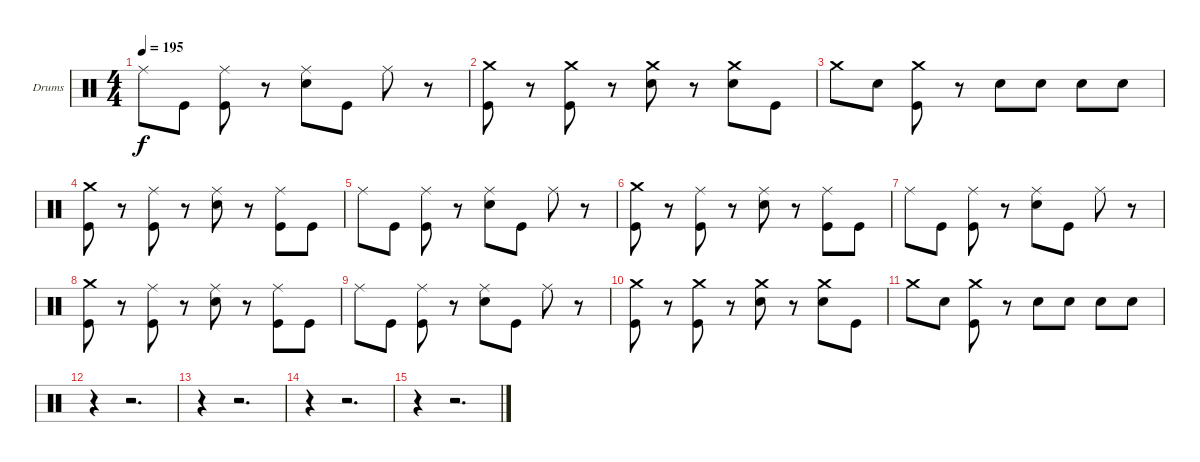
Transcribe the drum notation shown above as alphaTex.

\bracketExtendMode groupsimilarinstruments
\firstSystemTrackNameOrientation horizontal
\otherSystemsTrackNameOrientation horizontal
\track ("Drumkit" "Drums") {instrument percussion}
\staff {score}
\articulation defaults
\ts (4 4)
\tempo 195
\clef neutral
\ks c "Ride (middle)".8{dy f} "Kick (hit)".8
("Ride (middle)" "Kick (hit)").8 r.8 ("Ride (middle)" "Snare (hit) 2").8 "Kick (hit)".8 "Ride (middle)".8 r.8 |
("Crash medium (hit)" "Kick (hit)").8 r.8 ("Crash medium (hit)" "Kick (hit)").8 r.8 ("Crash medium (hit)" "Snare (hit) 2").8 r.8 ("Crash medium (hit)" "Snare (hit) 2").8 "Kick (hit)".8 |
"Crash medium (hit)".8 "Snare (hit) 2".8 ("Crash medium (hit)" "Kick (hit)").8 r.8 "Snare (hit) 2".8 "Snare (hit) 2".8 "Snare (hit) 2".8 "Snare (hit) 2".8 |
("Crash medium (hit)" "Kick (hit)").8 r.8 ("Ride (middle)" "Kick (hit)").8 r.8 ("Ride (middle)" "Snare (hit) 2").8 r.8 ("Ride (middle)" "Kick (hit)").8 "Kick (hit)".8 |
"Ride (middle)".8 "Kick (hit)".8 ("Ride (middle)" "Kick (hit)").8 r.8 ("Ride (middle)" "Snare (hit) 2").8 "Kick (hit)".8 "Ride (middle)".8 r.8 |
("Crash medium (hit)" "Kick (hit)").8 r.8 ("Ride (middle)" "Kick (hit)").8 r.8 ("Ride (middle)" "Snare (hit) 2").8 r.8 ("Ride (middle)" "Kick (hit)").8 "Kick (hit)".8 |
"Ride (middle)".8 "Kick (hit)".8 ("Ride (middle)" "Kick (hit)").8 r.8 ("Ride (middle)" "Snare (hit) 2").8 "Kick (hit)".8 "Ride (middle)".8 r.8 |
("Crash medium (hit)" "Kick (hit)").8 r.8 ("Ride (middle)" "Kick (hit)").8 r.8 ("Ride (middle)" "Snare (hit) 2").8 r.8 ("Ride (middle)" "Kick (hit)").8 "Kick (hit)".8 |
"Ride (middle)".8 "Kick (hit)".8 ("Ride (middle)" "Kick (hit)").8 r.8 ("Ride (middle)" "Snare (hit) 2").8 "Kick (hit)".8 "Ride (middle)".8 r.8 |
("Crash medium (hit)" "Kick (hit)").8 r.8 ("Crash medium (hit)" "Kick (hit)").8 r.8 ("Crash medium (hit)" "Snare (hit) 2").8 r.8 ("Crash medium (hit)" "Snare (hit) 2").8 "Kick (hit)".8 |
"Crash medium (hit)".8 "Snare (hit) 2".8 ("Crash medium (hit)" "Kick (hit)").8 r.8 "Snare (hit) 2".8 "Snare (hit) 2".8 "Snare (hit) 2".8 "Snare (hit) 2".8 |
r.4 r.2{d} |
r.4 r.2{d} |
r.4 r.2{d} |
r.4 r.2{d}
